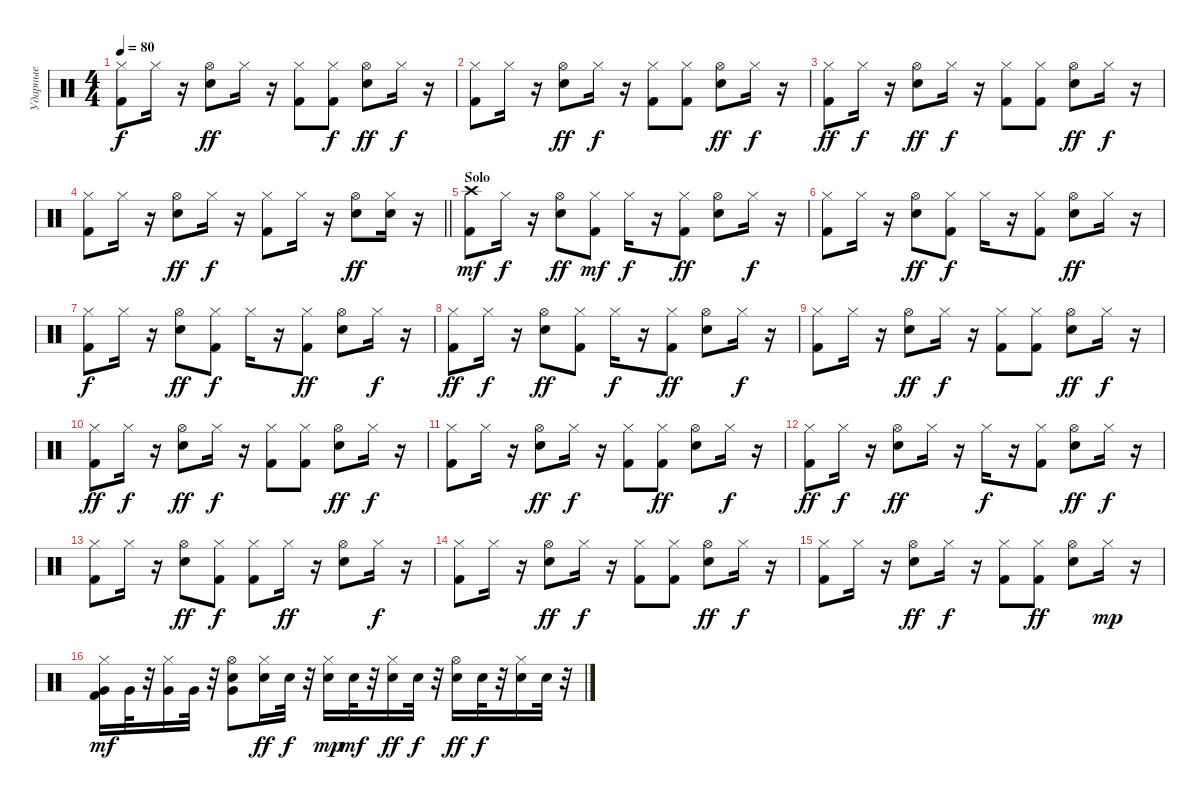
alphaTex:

\track ("Ударные" "Ударные") {instrument percussion}
\staff {score}
\articulation defaults
\ts (4 4)
\tempo 80
\clef neutral
\ks c
("Kick (hit) 2" "Hi-Hat (closed)").8{dy f} "Hi-Hat (closed)".16 r.16 ("Electric Snare (hit)" "Hi-Hat (open)").8{dy ff} "Hi-Hat (closed)".16 r.16 ("Kick (hit) 2" "Hi-Hat (closed)").8 ("Kick (hit) 2" "Hi-Hat (closed)").8{dy f} ("Electric Snare (hit)" "Hi-Hat (open)").8{dy ff} "Hi-Hat (closed)".16{dy f} r.16 |
("Kick (hit) 2" "Hi-Hat (closed)").8 "Hi-Hat (closed)".16 r.16 ("Electric Snare (hit)" "Hi-Hat (open)").8{dy ff} "Hi-Hat (closed)".16{dy f} r.16 ("Kick (hit) 2" "Hi-Hat (closed)").8 ("Kick (hit) 2" "Hi-Hat (closed)").8 ("Electric Snare (hit)" "Hi-Hat (open)").8{dy ff} "Hi-Hat (closed)".16{dy f} r.16 |
("Kick (hit) 2" "Hi-Hat (closed)").8{dy ff} "Hi-Hat (closed)".16{dy f} r.16 ("Electric Snare (hit)" "Hi-Hat (open)").8{dy ff} "Hi-Hat (closed)".16{dy f} r.16 ("Kick (hit) 2" "Hi-Hat (closed)").8 ("Kick (hit) 2" "Hi-Hat (closed)").8 ("Electric Snare (hit)" "Hi-Hat (open)").8{dy ff} "Hi-Hat (closed)".16{dy f} r.16 |
\barLineRight lightlight
("Kick (hit) 2" "Hi-Hat (closed)").8 "Hi-Hat (closed)".16 r.16 ("Electric Snare (hit)" "Hi-Hat (open)").8{dy ff} "Hi-Hat (closed)".16{dy f} r.16 ("Kick (hit) 2" "Hi-Hat (closed)").8 "Hi-Hat (closed)".16 r.16 ("Electric Snare (hit)" "Hi-Hat (open)").8{dy ff} ("Hi-Hat (closed)" "Electric Snare (hit)").16 r.16 |
\section ("" "Solo")
("Kick (hit) 2" "Crash high (hit)").8{dy mf} "Hi-Hat (closed)".16{dy f} r.16 ("Electric Snare (hit)" "Hi-Hat (open)").8{dy ff} ("Kick (hit) 2" "Hi-Hat (closed)").8{dy mf} "Hi-Hat (closed)".16{dy f} r.16 ("Kick (hit) 2" "Hi-Hat (closed)").8{dy ff} ("Electric Snare (hit)" "Hi-Hat (open)").8 "Hi-Hat (closed)".16{dy f} r.16 |
("Kick (hit) 2" "Hi-Hat (closed)").8 "Hi-Hat (closed)".16 r.16 ("Electric Snare (hit)" "Hi-Hat (open)").8{dy ff} ("Kick (hit) 2" "Hi-Hat (closed)").8{dy f} "Hi-Hat (closed)".16 r.16 ("Kick (hit) 2" "Hi-Hat (closed)").8 ("Electric Snare (hit)" "Hi-Hat (open)").8{dy ff} "Hi-Hat (closed)".16 r.16 |
("Kick (hit) 2" "Hi-Hat (closed)").8{dy f} "Hi-Hat (closed)".16 r.16 ("Electric Snare (hit)" "Hi-Hat (open)").8{dy ff} ("Kick (hit) 2" "Hi-Hat (closed)").8{dy f} "Hi-Hat (closed)".16 r.16 ("Kick (hit) 2" "Hi-Hat (closed)").8{dy ff} ("Electric Snare (hit)" "Hi-Hat (open)").8 "Hi-Hat (closed)".16{dy f} r.16 |
("Kick (hit) 2" "Hi-Hat (closed)").8{dy ff} "Hi-Hat (closed)".16{dy f} r.16 ("Electric Snare (hit)" "Hi-Hat (open)").8{dy ff} ("Kick (hit) 2" "Hi-Hat (closed)").8 "Hi-Hat (closed)".16{dy f} r.16 ("Kick (hit) 2" "Hi-Hat (closed)").8{dy ff} ("Electric Snare (hit)" "Hi-Hat (open)").8 "Hi-Hat (closed)".16{dy f} r.16 |
("Kick (hit) 2" "Hi-Hat (closed)").8 "Hi-Hat (closed)".16 r.16 ("Electric Snare (hit)" "Hi-Hat (open)").8{dy ff} "Hi-Hat (closed)".16{dy f} r.16 ("Kick (hit) 2" "Hi-Hat (closed)").8 ("Kick (hit) 2" "Hi-Hat (closed)").8 ("Electric Snare (hit)" "Hi-Hat (open)").8{dy ff} "Hi-Hat (closed)".16{dy f} r.16 |
("Kick (hit) 2" "Hi-Hat (closed)").8{dy ff} "Hi-Hat (closed)".16{dy f} r.16 ("Electric Snare (hit)" "Hi-Hat (open)").8{dy ff} "Hi-Hat (closed)".16{dy f} r.16 ("Kick (hit) 2" "Hi-Hat (closed)").8 ("Kick (hit) 2" "Hi-Hat (closed)").8 ("Electric Snare (hit)" "Hi-Hat (open)").8{dy ff} "Hi-Hat (closed)".16{dy f} r.16 |
("Kick (hit) 2" "Hi-Hat (closed)").8 "Hi-Hat (closed)".16 r.16 ("Electric Snare (hit)" "Hi-Hat (open)").8{dy ff} "Hi-Hat (closed)".16{dy f} r.16 ("Kick (hit) 2" "Hi-Hat (closed)").8 ("Kick (hit) 2" "Hi-Hat (closed)").8{dy ff} ("Electric Snare (hit)" "Hi-Hat (open)").8 "Hi-Hat (closed)".16{dy f} r.16 |
("Kick (hit) 2" "Hi-Hat (closed)").8{dy ff} "Hi-Hat (closed)".16{dy f} r.16 ("Electric Snare (hit)" "Hi-Hat (open)").8{dy ff} "Hi-Hat (closed)".16 r.16 "Hi-Hat (closed)".16{dy f} r.16 ("Kick (hit) 2" "Hi-Hat (closed)").8 ("Electric Snare (hit)" "Hi-Hat (open)").8{dy ff} "Hi-Hat (closed)".16{dy f} r.16 |
("Kick (hit) 2" "Hi-Hat (closed)").8 "Hi-Hat (closed)".16 r.16 ("Electric Snare (hit)" "Hi-Hat (open)").8{dy ff} ("Kick (hit) 2" "Hi-Hat (closed)").8{dy f} ("Kick (hit) 2" "Hi-Hat (closed)").8 "Hi-Hat (closed)".16{dy ff} r.16 ("Electric Snare (hit)" "Hi-Hat (open)").8 "Hi-Hat (closed)".16{dy f} r.16 |
("Kick (hit) 2" "Hi-Hat (closed)").8 "Hi-Hat (closed)".16 r.16 ("Electric Snare (hit)" "Hi-Hat (open)").8{dy ff} "Hi-Hat (closed)".16{dy f} r.16 ("Kick (hit) 2" "Hi-Hat (closed)").8 ("Kick (hit) 2" "Hi-Hat (closed)").8 ("Electric Snare (hit)" "Hi-Hat (open)").8{dy ff} "Hi-Hat (closed)".16{dy f} r.16 |
("Kick (hit) 2" "Hi-Hat (closed)").8 "Hi-Hat (closed)".16 r.16 ("Electric Snare (hit)" "Hi-Hat (open)").8{dy ff} "Hi-Hat (closed)".16{dy f} r.16 ("Kick (hit) 2" "Hi-Hat (closed)").8 ("Kick (hit) 2" "Hi-Hat (closed)").8{dy ff} ("Electric Snare (hit)" "Hi-Hat (open)").8 "Hi-Hat (closed)".16{dy mp} r.16 |
("Kick (hit) 2" "Hi-Hat (closed)" "Very Low Tom (hit)").16{dy mf} "Very Low Tom (hit)".32 r.32 ("Hi-Hat (closed)" "Very Low Tom (hit)").16 "Very Low Tom (hit)".32 r.32 ("Electric Snare (hit)" "Hi-Hat (open)" "Very Low Tom (hit)").8 ("Hi-Hat (closed)" "Electric Snare (hit)").16{dy ff} "Electric Snare (hit)".32{dy f} r.32 ("Hi-Hat (closed)" "Electric Snare (hit)").16{dy mp} "Electric Snare (hit)".32{dy mf} r.32 ("Hi-Hat (closed)" "Electric Snare (hit)").16{dy ff} "Electric Snare (hit)".32{dy f} r.32 ("Hi-Hat (open)" "Electric Snare (hit)").16{dy ff} "Electric Snare (hit)".32{dy f} r.32 ("Hi-Hat (closed)" "Electric Snare (hit)").16 "Electric Snare (hit)".32 r.32
